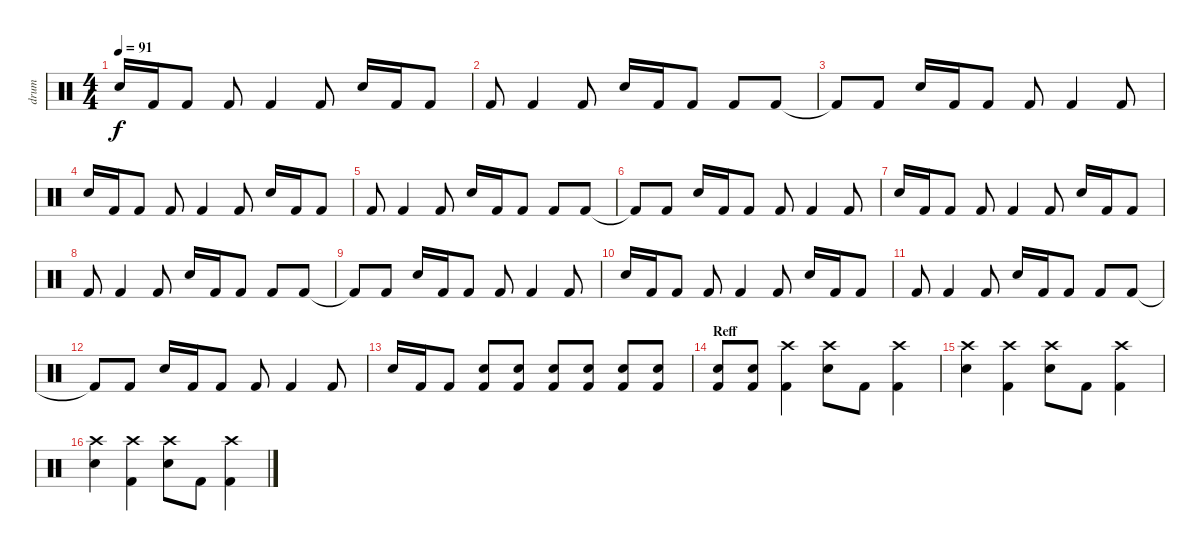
\track ("drum" "drum") {instrument percussion}
\staff {score}
\articulation defaults
\ts (4 4)
\tempo 91
\clef neutral
\ks c "Electric Snare (hit)".16{dy f} "Kick (hit) 2".16 "Kick (hit) 2".8 "Kick (hit) 2".8 "Kick (hit) 2".4 "Kick (hit) 2".8 "Electric Snare (hit)".16 "Kick (hit) 2".16 "Kick (hit) 2".8
|
"Kick (hit) 2".8 "Kick (hit) 2".4 "Kick (hit) 2".8 "Electric Snare (hit)".16 "Kick (hit) 2".16 "Kick (hit) 2".8 "Kick (hit) 2".8 "Kick (hit) 2".8 |
"Kick (hit) 2"{t}.8 "Kick (hit) 2".8 "Electric Snare (hit)".16 "Kick (hit) 2".16 "Kick (hit) 2".8 "Kick (hit) 2".8 "Kick (hit) 2".4 "Kick (hit) 2".8 |
"Electric Snare (hit)".16 "Kick (hit) 2".16 "Kick (hit) 2".8 "Kick (hit) 2".8 "Kick (hit) 2".4 "Kick (hit) 2".8 "Electric Snare (hit)".16 "Kick (hit) 2".16 "Kick (hit) 2".8 |
"Kick (hit) 2".8 "Kick (hit) 2".4 "Kick (hit) 2".8 "Electric Snare (hit)".16 "Kick (hit) 2".16 "Kick (hit) 2".8 "Kick (hit) 2".8 "Kick (hit) 2".8 |
"Kick (hit) 2"{t}.8 "Kick (hit) 2".8 "Electric Snare (hit)".16 "Kick (hit) 2".16 "Kick (hit) 2".8 "Kick (hit) 2".8 "Kick (hit) 2".4 "Kick (hit) 2".8 |
"Electric Snare (hit)".16 "Kick (hit) 2".16 "Kick (hit) 2".8 "Kick (hit) 2".8 "Kick (hit) 2".4 "Kick (hit) 2".8 "Electric Snare (hit)".16 "Kick (hit) 2".16 "Kick (hit) 2".8 |
"Kick (hit) 2".8 "Kick (hit) 2".4 "Kick (hit) 2".8 "Electric Snare (hit)".16 "Kick (hit) 2".16 "Kick (hit) 2".8 "Kick (hit) 2".8 "Kick (hit) 2".8 |
"Kick (hit) 2"{t}.8 "Kick (hit) 2".8 "Electric Snare (hit)".16 "Kick (hit) 2".16 "Kick (hit) 2".8 "Kick (hit) 2".8 "Kick (hit) 2".4 "Kick (hit) 2".8 |
"Electric Snare (hit)".16 "Kick (hit) 2".16 "Kick (hit) 2".8 "Kick (hit) 2".8 "Kick (hit) 2".4 "Kick (hit) 2".8 "Electric Snare (hit)".16 "Kick (hit) 2".16 "Kick (hit) 2".8 |
"Kick (hit) 2".8 "Kick (hit) 2".4 "Kick (hit) 2".8 "Electric Snare (hit)".16 "Kick (hit) 2".16 "Kick (hit) 2".8 "Kick (hit) 2".8 "Kick (hit) 2".8 |
"Kick (hit) 2"{t}.8 "Kick (hit) 2".8 "Electric Snare (hit)".16 "Kick (hit) 2".16 "Kick (hit) 2".8 "Kick (hit) 2".8 "Kick (hit) 2".4 "Kick (hit) 2".8 |
"Electric Snare (hit)".16 "Kick (hit) 2".16 "Kick (hit) 2".8 ("Electric Snare (hit)" "Kick (hit) 2").8 ("Electric Snare (hit)" "Kick (hit) 2").8 ("Electric Snare (hit)" "Kick (hit) 2").8 ("Electric Snare (hit)" "Kick (hit) 2").8 ("Electric Snare (hit)" "Kick (hit) 2").8 ("Electric Snare (hit)" "Kick (hit) 2").8 |
\section ("" "Reff")
("Electric Snare (hit)" "Kick (hit) 2").8 ("Electric Snare (hit)" "Kick (hit) 2").8 ("Crash high (hit)" "Kick (hit) 2").4 ("Crash high (hit)" "Electric Snare (hit)").8 "Kick (hit) 2".8 ("Crash high (hit)" "Kick (hit) 2").4 |
("Crash high (hit)" "Electric Snare (hit)").4 ("Crash high (hit)" "Kick (hit) 2").4 ("Crash high (hit)" "Electric Snare (hit)").8 "Kick (hit) 2".8 ("Crash high (hit)" "Kick (hit) 2").4 |
("Crash high (hit)" "Electric Snare (hit)").4 ("Crash high (hit)" "Kick (hit) 2").4 ("Crash high (hit)" "Electric Snare (hit)").8 "Kick (hit) 2".8 ("Crash high (hit)" "Kick (hit) 2").4
